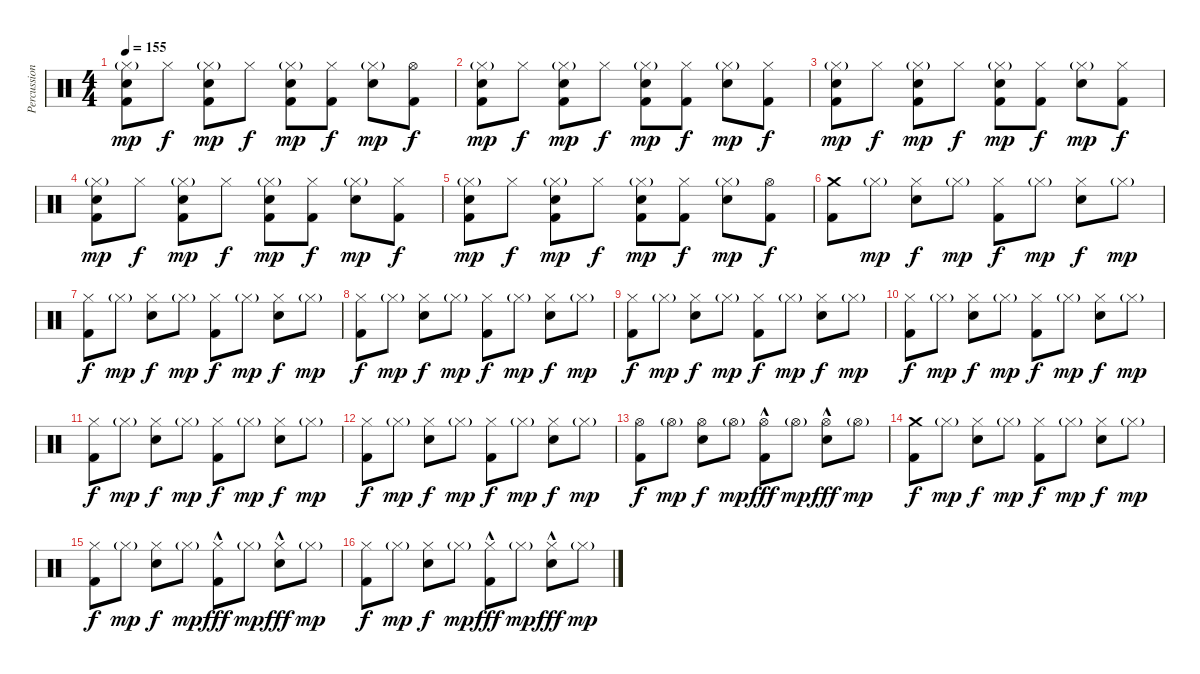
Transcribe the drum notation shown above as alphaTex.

\track ("Percussion" "Percussion") {instrument percussion}
\staff {score}
\articulation defaults
\ts (4 4)
\tempo 155
\clef neutral
\ks c
("Hi-Hat (closed)"{g} "Electric Snare (hit)" "Kick (hit) 2").8{dy mp} "Hi-Hat (closed)".8{dy f} ("Hi-Hat (closed)"{g} "Electric Snare (hit)" "Kick (hit) 2").8{dy mp} "Hi-Hat (closed)".8{dy f} ("Hi-Hat (closed)"{g} "Electric Snare (hit)" "Kick (hit) 2").8{dy mp} ("Hi-Hat (closed)" "Kick (hit) 2").8{dy f} ("Hi-Hat (closed)"{g} "Electric Snare (hit)").8{dy mp} ("Hi-Hat (open)" "Kick (hit) 2").8{dy f} |
("Hi-Hat (closed)"{g} "Electric Snare (hit)" "Kick (hit) 2").8{dy mp} "Hi-Hat (closed)".8{dy f} ("Hi-Hat (closed)"{g} "Electric Snare (hit)" "Kick (hit) 2").8{dy mp} "Hi-Hat (closed)".8{dy f} ("Hi-Hat (closed)"{g} "Electric Snare (hit)" "Kick (hit) 2").8{dy mp} ("Hi-Hat (closed)" "Kick (hit) 2").8{dy f} ("Hi-Hat (closed)"{g} "Electric Snare (hit)").8{dy mp} ("Hi-Hat (closed)" "Kick (hit) 2").8{dy f} |
("Hi-Hat (closed)"{g} "Electric Snare (hit)" "Kick (hit) 2").8{dy mp} "Hi-Hat (closed)".8{dy f} ("Hi-Hat (closed)"{g} "Electric Snare (hit)" "Kick (hit) 2").8{dy mp} "Hi-Hat (closed)".8{dy f} ("Hi-Hat (closed)"{g} "Electric Snare (hit)" "Kick (hit) 2").8{dy mp} ("Hi-Hat (closed)" "Kick (hit) 2").8{dy f} ("Hi-Hat (closed)"{g} "Electric Snare (hit)").8{dy mp} ("Hi-Hat (closed)" "Kick (hit) 2").8{dy f} |
("Hi-Hat (closed)"{g} "Electric Snare (hit)" "Kick (hit) 2").8{dy mp} "Hi-Hat (closed)".8{dy f} ("Hi-Hat (closed)"{g} "Electric Snare (hit)" "Kick (hit) 2").8{dy mp} "Hi-Hat (closed)".8{dy f} ("Hi-Hat (closed)"{g} "Electric Snare (hit)" "Kick (hit) 2").8{dy mp} ("Hi-Hat (closed)" "Kick (hit) 2").8{dy f} ("Hi-Hat (closed)"{g} "Electric Snare (hit)").8{dy mp} ("Hi-Hat (closed)" "Kick (hit) 2").8{dy f} |
("Hi-Hat (closed)"{g} "Electric Snare (hit)" "Kick (hit) 2").8{dy mp} "Hi-Hat (closed)".8{dy f} ("Hi-Hat (closed)"{g} "Electric Snare (hit)" "Kick (hit) 2").8{dy mp} "Hi-Hat (closed)".8{dy f} ("Hi-Hat (closed)"{g} "Electric Snare (hit)" "Kick (hit) 2").8{dy mp} ("Hi-Hat (closed)" "Kick (hit) 2").8{dy f} ("Hi-Hat (closed)"{g} "Electric Snare (hit)").8{dy mp} ("Hi-Hat (open)" "Kick (hit) 2").8{dy f} |
("Crash medium (hit)" "Kick (hit) 2").8 "Hi-Hat (closed)"{g}.8{dy mp} ("Hi-Hat (closed)" "Electric Snare (hit)").8{dy f} "Hi-Hat (closed)"{g}.8{dy mp} ("Hi-Hat (closed)" "Kick (hit) 2").8{dy f} "Hi-Hat (closed)"{g}.8{dy mp} ("Hi-Hat (closed)" "Electric Snare (hit)").8{dy f} "Hi-Hat (closed)"{g}.8{dy mp} |
("Hi-Hat (closed)" "Kick (hit) 2").8{dy f} "Hi-Hat (closed)"{g}.8{dy mp} ("Hi-Hat (closed)" "Electric Snare (hit)").8{dy f} "Hi-Hat (closed)"{g}.8{dy mp} ("Hi-Hat (closed)" "Kick (hit) 2").8{dy f} "Hi-Hat (closed)"{g}.8{dy mp} ("Hi-Hat (closed)" "Electric Snare (hit)").8{dy f} "Hi-Hat (closed)"{g}.8{dy mp} |
("Hi-Hat (closed)" "Kick (hit) 2").8{dy f} "Hi-Hat (closed)"{g}.8{dy mp} ("Hi-Hat (closed)" "Electric Snare (hit)").8{dy f} "Hi-Hat (closed)"{g}.8{dy mp} ("Hi-Hat (closed)" "Kick (hit) 2").8{dy f} "Hi-Hat (closed)"{g}.8{dy mp} ("Hi-Hat (closed)" "Electric Snare (hit)").8{dy f} "Hi-Hat (closed)"{g}.8{dy mp} |
("Hi-Hat (closed)" "Kick (hit) 2").8{dy f} "Hi-Hat (closed)"{g}.8{dy mp} ("Hi-Hat (closed)" "Electric Snare (hit)").8{dy f} "Hi-Hat (closed)"{g}.8{dy mp} ("Hi-Hat (closed)" "Kick (hit) 2").8{dy f} "Hi-Hat (closed)"{g}.8{dy mp} ("Hi-Hat (closed)" "Electric Snare (hit)").8{dy f} "Hi-Hat (closed)"{g}.8{dy mp} |
("Hi-Hat (closed)" "Kick (hit) 2").8{dy f} "Hi-Hat (closed)"{g}.8{dy mp} ("Hi-Hat (closed)" "Electric Snare (hit)").8{dy f} "Hi-Hat (closed)"{g}.8{dy mp} ("Hi-Hat (closed)" "Kick (hit) 2").8{dy f} "Hi-Hat (closed)"{g}.8{dy mp} ("Hi-Hat (closed)" "Electric Snare (hit)").8{dy f} "Hi-Hat (closed)"{g}.8{dy mp} |
("Hi-Hat (closed)" "Kick (hit) 2").8{dy f} "Hi-Hat (closed)"{g}.8{dy mp} ("Hi-Hat (closed)" "Electric Snare (hit)").8{dy f} "Hi-Hat (closed)"{g}.8{dy mp} ("Hi-Hat (closed)" "Kick (hit) 2").8{dy f} "Hi-Hat (closed)"{g}.8{dy mp} ("Hi-Hat (closed)" "Electric Snare (hit)").8{dy f} "Hi-Hat (closed)"{g}.8{dy mp} |
("Hi-Hat (closed)" "Kick (hit) 2").8{dy f} "Hi-Hat (closed)"{g}.8{dy mp} ("Hi-Hat (closed)" "Electric Snare (hit)").8{dy f} "Hi-Hat (closed)"{g}.8{dy mp} ("Hi-Hat (closed)" "Kick (hit) 2").8{dy f} "Hi-Hat (closed)"{g}.8{dy mp} ("Hi-Hat (closed)" "Electric Snare (hit)").8{dy f} "Hi-Hat (closed)"{g}.8{dy mp} |
("Hi-Hat (open)" "Kick (hit) 2").8{dy f} "Hi-Hat (open)"{g}.8{dy mp} ("Hi-Hat (open)" "Electric Snare (hit)").8{dy f} "Hi-Hat (open)"{g}.8{dy mp} ("Hi-Hat (open)"{hac} "Kick (hit) 2").8{dy fff} "Hi-Hat (open)"{g}.8{dy mp} ("Hi-Hat (open)"{hac} "Electric Snare (hit)").8{dy fff} "Hi-Hat (open)"{g}.8{dy mp} |
("Crash medium (hit)" "Kick (hit) 2").8{dy f} "Hi-Hat (closed)"{g}.8{dy mp} ("Hi-Hat (closed)" "Electric Snare (hit)").8{dy f} "Hi-Hat (closed)"{g}.8{dy mp} ("Hi-Hat (closed)" "Kick (hit) 2").8{dy f} "Hi-Hat (closed)"{g}.8{dy mp} ("Hi-Hat (closed)" "Electric Snare (hit)").8{dy f} "Hi-Hat (closed)"{g}.8{dy mp} |
("Hi-Hat (closed)" "Kick (hit) 2").8{dy f} "Hi-Hat (closed)"{g}.8{dy mp} ("Hi-Hat (closed)" "Electric Snare (hit)").8{dy f} "Hi-Hat (closed)"{g}.8{dy mp} ("Hi-Hat (closed)"{hac} "Kick (hit) 2").8{dy fff} "Hi-Hat (closed)"{g}.8{dy mp} ("Hi-Hat (closed)"{hac} "Electric Snare (hit)").8{dy fff} "Hi-Hat (closed)"{g}.8{dy mp} |
("Hi-Hat (closed)" "Kick (hit) 2").8{dy f} "Hi-Hat (closed)"{g}.8{dy mp} ("Hi-Hat (closed)" "Electric Snare (hit)").8{dy f} "Hi-Hat (closed)"{g}.8{dy mp} ("Hi-Hat (closed)"{hac} "Kick (hit) 2").8{dy fff} "Hi-Hat (closed)"{g}.8{dy mp} ("Hi-Hat (closed)"{hac} "Electric Snare (hit)").8{dy fff} "Hi-Hat (closed)"{g}.8{dy mp}
